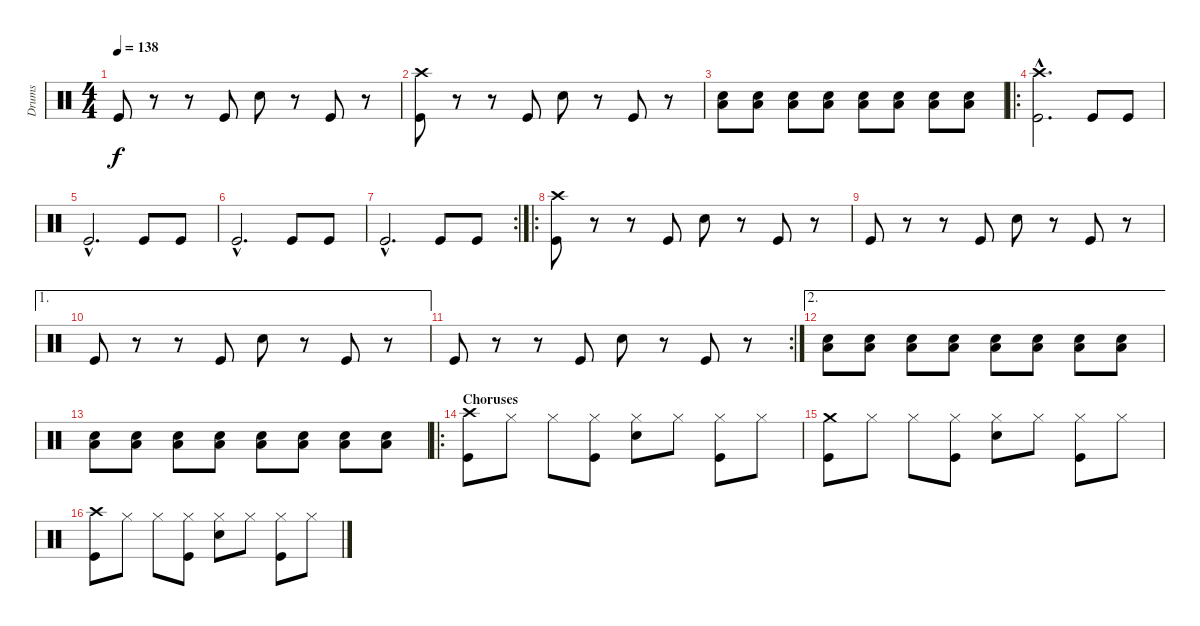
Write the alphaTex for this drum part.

\track ("Drums" "Drums") {instrument percussion}
\staff {score}
\articulation defaults
\ts (4 4)
\tempo 138
\clef neutral
\ks c "Kick (hit)".8{dy f}
r.8 r.8 "Kick (hit)".8 "Snare (hit) 2".8 r.8 "Kick (hit)".8 r.8 |
("Crash high (hit)" "Kick (hit)").8 r.8 r.8 "Kick (hit)".8 "Snare (hit) 2".8 r.8 "Kick (hit)".8 r.8 |
("Low Tom (hit)" "Snare (hit) 2").8 ("Low Tom (hit)" "Snare (hit) 2").8 ("Low Tom (hit)" "Snare (hit) 2").8 ("Low Tom (hit)" "Snare (hit) 2").8 ("Low Tom (hit)" "Snare (hit) 2").8 ("Low Tom (hit)" "Snare (hit) 2").8 ("Low Tom (hit)" "Snare (hit) 2").8 ("Low Tom (hit)" "Snare (hit) 2").8 |
\ro
("Crash high (hit)"{hac} "Kick (hit)"{hac}).2{d} "Kick (hit)".8 "Kick (hit)".8 |
"Kick (hit)"{hac}.2{d} "Kick (hit)".8 "Kick (hit)".8 |
"Kick (hit)"{hac}.2{d} "Kick (hit)".8 "Kick (hit)".8 |
\rc 2 "Kick (hit)"{hac}.2{d} "Kick (hit)".8 "Kick (hit)".8
|
\ro
("Crash high (hit)" "Kick (hit)").8 r.8 r.8 "Kick (hit)".8 "Snare (hit) 2".8 r.8 "Kick (hit)".8 r.8 |
"Kick (hit)".8 r.8 r.8 "Kick (hit)".8 "Snare (hit) 2".8 r.8 "Kick (hit)".8 r.8 |
\ae 1 "Kick (hit)".8
r.8 r.8 "Kick (hit)".8 "Snare (hit) 2".8 r.8 "Kick (hit)".8 r.8 |
\rc 2 "Kick (hit)".8
r.8 r.8 "Kick (hit)".8 "Snare (hit) 2".8 r.8 "Kick (hit)".8 r.8 |
\ae 2
("Low Tom (hit)" "Snare (hit) 2").8 ("Low Tom (hit)" "Snare (hit) 2").8 ("Low Tom (hit)" "Snare (hit) 2").8 ("Low Tom (hit)" "Snare (hit) 2").8 ("Low Tom (hit)" "Snare (hit) 2").8 ("Low Tom (hit)" "Snare (hit) 2").8 ("Low Tom (hit)" "Snare (hit) 2").8 ("Low Tom (hit)" "Snare (hit) 2").8 |
("Low Tom (hit)" "Snare (hit) 2").8 ("Low Tom (hit)" "Snare (hit) 2").8 ("Low Tom (hit)" "Snare (hit) 2").8 ("Low Tom (hit)" "Snare (hit) 2").8 ("Low Tom (hit)" "Snare (hit) 2").8 ("Low Tom (hit)" "Snare (hit) 2").8 ("Low Tom (hit)" "Snare (hit) 2").8 ("Low Tom (hit)" "Snare (hit) 2").8 |
\ro
\section ("" "Choruses")
("Crash high (hit)" "Kick (hit)").8 "Hi-Hat (closed)".8 "Hi-Hat (closed)".8 ("Hi-Hat (closed)" "Kick (hit)").8 ("Hi-Hat (closed)" "Snare (hit) 2").8 "Hi-Hat (closed)".8 ("Hi-Hat (closed)" "Kick (hit)").8 "Hi-Hat (closed)".8 |
("Crash medium (hit)" "Kick (hit)").8 "Hi-Hat (closed)".8 "Hi-Hat (closed)".8 ("Hi-Hat (closed)" "Kick (hit)").8 ("Hi-Hat (closed)" "Snare (hit) 2").8 "Hi-Hat (closed)".8 ("Hi-Hat (closed)" "Kick (hit)").8 "Hi-Hat (closed)".8 |
("Crash high (hit)" "Kick (hit)").8 "Hi-Hat (closed)".8 "Hi-Hat (closed)".8 ("Hi-Hat (closed)" "Kick (hit)").8 ("Hi-Hat (closed)" "Snare (hit) 2").8 "Hi-Hat (closed)".8 ("Hi-Hat (closed)" "Kick (hit)").8 "Hi-Hat (closed)".8
